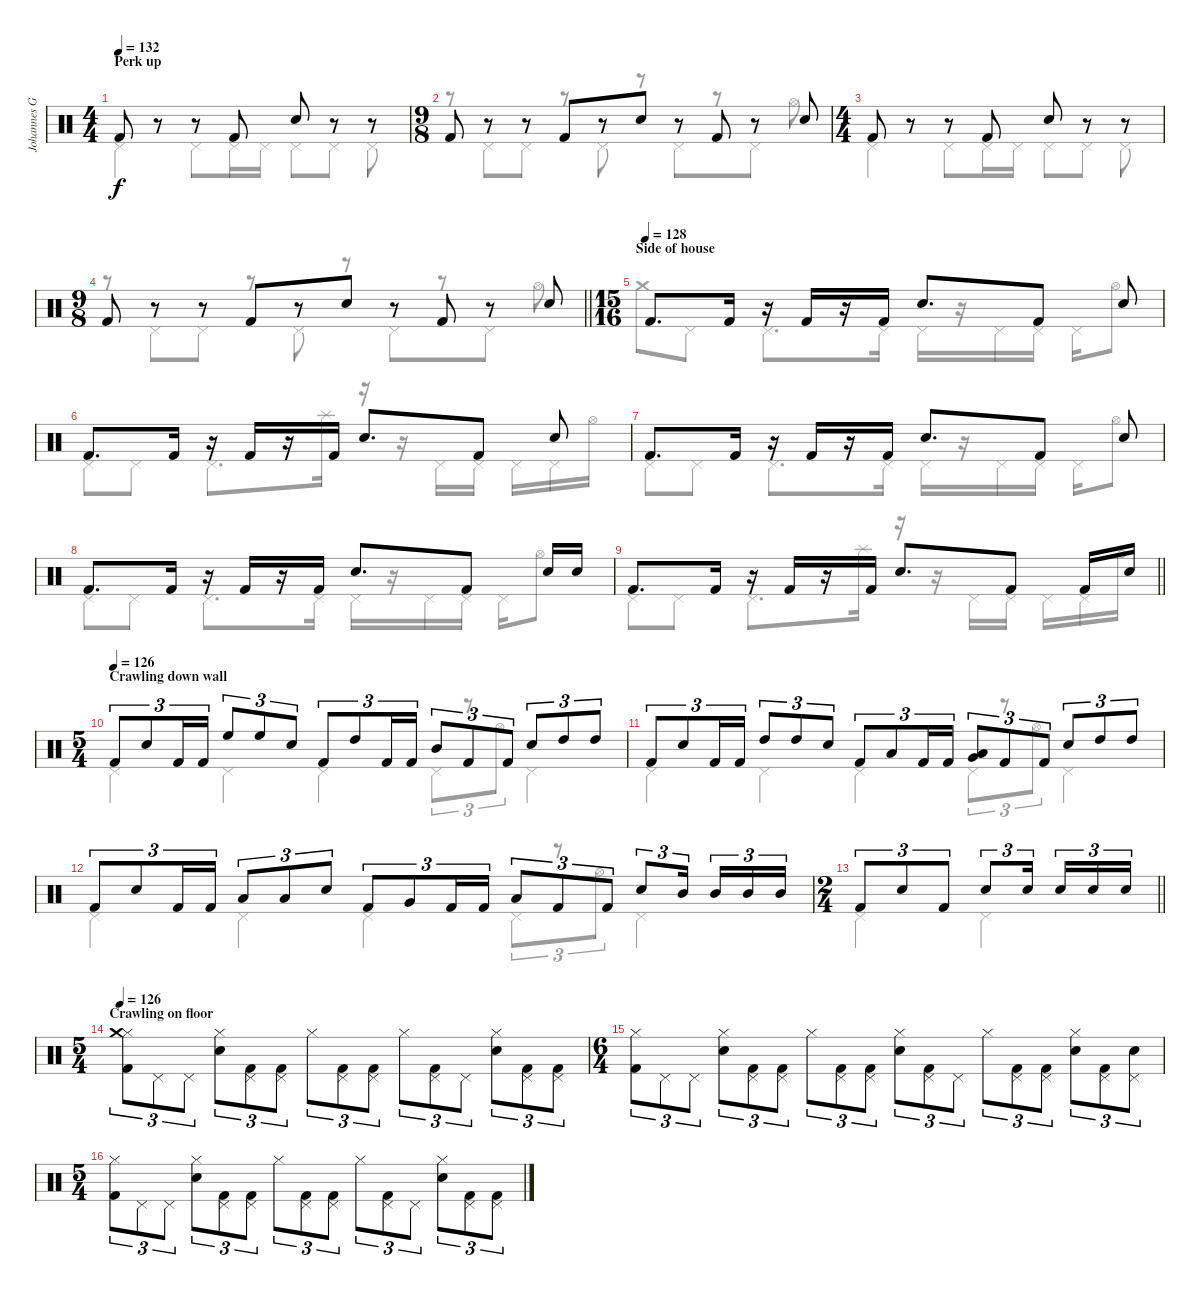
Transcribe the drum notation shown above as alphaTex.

\track ("Johannes Grossmann" "Johannes G") {instrument percussion}
\staff {score}
\articulation defaults
\voice
\ts (4 4)
\section ("" "Perk up")
\tempo 132
\clef neutral
\ks c "Kick (hit) 2".8{dy f}
r.8 r.8 "Kick (hit) 2".8 "Snare (hit) 2".8 r.8 r.8 |
\ts (9 8)
"Kick (hit) 2".8 r.8 r.8 "Kick (hit) 2".8 r.8 "Snare (hit) 2".8 r.8 "Kick (hit) 2".8 r.8 "Snare (hit) 2".8 |
\ts (4 4)
"Kick (hit) 2".8 r.8 r.8 "Kick (hit) 2".8 "Snare (hit) 2".8 r.8 r.8 |
\ts (9 8)
\barLineRight lightlight "Kick (hit) 2".8
r.8 r.8 "Kick (hit) 2".8 r.8 "Snare (hit) 2".8 r.8 "Kick (hit) 2".8 r.8 "Snare (hit) 2".8 |
\ts (15 16)
\section ("" "Side of house")
\tempo (128)
"Kick (hit) 2".8{d} "Kick (hit) 2".16 r.16 "Kick (hit) 2".16 r.16 "Kick (hit) 2".16 "Snare (hit) 2".8{d} "Kick (hit) 2".8 "Snare (hit) 2".8 |
"Kick (hit) 2".8{d} "Kick (hit) 2".16 r.16 "Kick (hit) 2".16 r.16 "Kick (hit) 2".16 "Snare (hit) 2".8{d} "Kick (hit) 2".8 "Snare (hit) 2".8 |
"Kick (hit) 2".8{d} "Kick (hit) 2".16 r.16 "Kick (hit) 2".16 r.16 "Kick (hit) 2".16 "Snare (hit) 2".8{d} "Kick (hit) 2".8 "Snare (hit) 2".8 |
"Kick (hit) 2".8{d} "Kick (hit) 2".16 r.16 "Kick (hit) 2".16 r.16 "Kick (hit) 2".16 "Snare (hit) 2".8{d} "Kick (hit) 2".8 "Snare (hit) 2".16 "Snare (hit) 2".16 |
\barLineRight lightlight "Kick (hit) 2".8{d} "Kick (hit) 2".16
r.16 "Kick (hit) 2".16 r.16 "Kick (hit) 2".16 "Snare (hit) 2".8{d} "Kick (hit) 2".8 "Kick (hit) 2".16 "Snare (hit) 2".16 |
\ts (5 4)
\section ("" "Crawling down wall")
\tempo (126)
"Kick (hit) 2".8{tu (3 2)} "Snare (hit) 2".8{tu (3 2)} "Kick (hit) 2".16{tu (3 2)} "Kick (hit) 2".16{tu (3 2)} "High Floor Tom (hit)".8{tu (3 2)} "High Floor Tom (hit)".8{tu (3 2)} "Snare (hit) 2".8{tu (3 2)} "Kick (hit) 2".8{tu (3 2)} "High Tom (hit)".8{tu (3 2)} "Kick (hit) 2".16{tu (3 2)} "Kick (hit) 2".16{tu (3 2)} "Mid Tom (hit)".8{tu (3 2)} "Kick (hit) 2".8{tu (3 2)} "Kick (hit) 2".8{tu (3 2)} "Snare (hit) 2".8{tu (3 2)} "High Tom (hit)".8{tu (3 2)} "High Tom (hit)".8{tu (3 2)} |
"Kick (hit) 2".8{tu (3 2)} "Snare (hit) 2".8{tu (3 2)} "Kick (hit) 2".16{tu (3 2)} "Kick (hit) 2".16{tu (3 2)} "High Tom (hit)".8{tu (3 2)} "High Tom (hit)".8{tu (3 2)} "Snare (hit) 2".8{tu (3 2)} "Kick (hit) 2".8{tu (3 2)} "Low Tom (hit)".8{tu (3 2)} "Kick (hit) 2".16{tu (3 2)} "Kick (hit) 2".16{tu (3 2)} ("Low Floor Tom (hit)" "Very Low Tom (hit)").8{tu (3 2)} "Kick (hit) 2".8{tu (3 2)} "Kick (hit) 2".8{tu (3 2)} "Snare (hit) 2".8{tu (3 2)} "High Tom (hit)".8{tu (3 2)} "High Tom (hit)".8{tu (3 2)} |
"Kick (hit) 2".8{tu (3 2)} "Snare (hit) 2".8{tu (3 2)} "Kick (hit) 2".16{tu (3 2)} "Kick (hit) 2".16{tu (3 2)} "Low Tom (hit)".8{tu (3 2)} "Low Tom (hit)".8{tu (3 2)} "Snare (hit) 2".8{tu (3 2)} "Kick (hit) 2".8{tu (3 2)} "Very Low Tom (hit)".8{tu (3 2)} "Kick (hit) 2".16{tu (3 2)} "Kick (hit) 2".16{tu (3 2)} "Low Floor Tom (hit)".8{tu (3 2)} "Kick (hit) 2".8{tu (3 2)} "Kick (hit) 2".8{tu (3 2)} "Snare (hit) 2".8{tu (3 2)} "Mid Tom (hit)".16{tu (3 2) beam splitsecondary} "Mid Tom (hit)".16{tu (3 2)} "Mid Tom (hit)".16{tu (3 2)} "Mid Tom (hit)".16{tu (3 2)} |
\ts (2 4)
\barLineRight lightlight "Kick (hit) 2".8{tu (3 2)} "Snare (hit) 2".8{tu (3 2)} "Kick (hit) 2".8{tu (3 2)} "Snare (hit) 2".8{tu (3 2)} "Snare (hit) 2".16{tu (3 2) beam splitsecondary} "Snare (hit) 2".16{tu (3 2)} "Snare (hit) 2".16{tu (3 2)} "Snare (hit) 2".16{tu (3 2)}
|
\ts (5 4)
\section ("" "Crawling on floor")
\tempo 126
("Hi-Hat (closed)" "Crash medium (hit)" "Kick (hit) 2").8{tu (3 2)} "Pedal Hi-Hat (hit)".8{tu (3 2)} "Pedal Hi-Hat (hit)".8{tu (3 2)} ("Hi-Hat (closed)" "Snare (hit) 2").8{tu (3 2)} ("Pedal Hi-Hat (hit)" "Kick (hit) 2").8{tu (3 2)} ("Pedal Hi-Hat (hit)" "Kick (hit) 2").8{tu (3 2)} "Hi-Hat (closed)".8{tu (3 2)} ("Pedal Hi-Hat (hit)" "Kick (hit) 2").8{tu (3 2)} ("Pedal Hi-Hat (hit)" "Kick (hit) 2").8{tu (3 2)} "Hi-Hat (closed)".8{tu (3 2)} ("Pedal Hi-Hat (hit)" "Kick (hit) 2").8{tu (3 2)} "Pedal Hi-Hat (hit)".8{tu (3 2)} ("Hi-Hat (closed)" "Snare (hit) 2").8{tu (3 2)} ("Pedal Hi-Hat (hit)" "Kick (hit) 2").8{tu (3 2)} ("Pedal Hi-Hat (hit)" "Kick (hit) 2").8{tu (3 2)} |
\ts (6 4)
("Hi-Hat (closed)" "Kick (hit) 2").8{tu (3 2)} "Pedal Hi-Hat (hit)".8{tu (3 2)} "Pedal Hi-Hat (hit)".8{tu (3 2)} ("Hi-Hat (closed)" "Snare (hit) 2").8{tu (3 2)} ("Pedal Hi-Hat (hit)" "Kick (hit) 2").8{tu (3 2)} ("Pedal Hi-Hat (hit)" "Kick (hit) 2").8{tu (3 2)} "Hi-Hat (closed)".8{tu (3 2)} ("Pedal Hi-Hat (hit)" "Kick (hit) 2").8{tu (3 2)} ("Pedal Hi-Hat (hit)" "Kick (hit) 2").8{tu (3 2)} ("Hi-Hat (closed)" "Snare (hit) 2").8{tu (3 2)} ("Pedal Hi-Hat (hit)" "Kick (hit) 2").8{tu (3 2)} "Pedal Hi-Hat (hit)".8{tu (3 2)} "Hi-Hat (closed)".8{tu (3 2)} ("Pedal Hi-Hat (hit)" "Kick (hit) 2").8{tu (3 2)} ("Pedal Hi-Hat (hit)" "Kick (hit) 2").8{tu (3 2)} ("Hi-Hat (closed)" "Snare (hit) 2").8{tu (3 2)} ("Pedal Hi-Hat (hit)" "Kick (hit) 2").8{tu (3 2)} ("Pedal Hi-Hat (hit)" "Snare (hit) 2").8{tu (3 2)} |
\ts (5 4)
("Hi-Hat (closed)" "Kick (hit) 2").8{tu (3 2)} "Pedal Hi-Hat (hit)".8{tu (3 2)} "Pedal Hi-Hat (hit)".8{tu (3 2)} ("Hi-Hat (closed)" "Snare (hit) 2").8{tu (3 2)} ("Pedal Hi-Hat (hit)" "Kick (hit) 2").8{tu (3 2)} ("Pedal Hi-Hat (hit)" "Kick (hit) 2").8{tu (3 2)} "Hi-Hat (closed)".8{tu (3 2)} ("Pedal Hi-Hat (hit)" "Kick (hit) 2").8{tu (3 2)} ("Pedal Hi-Hat (hit)" "Kick (hit) 2").8{tu (3 2)} "Hi-Hat (closed)".8{tu (3 2)} ("Pedal Hi-Hat (hit)" "Kick (hit) 2").8{tu (3 2)} "Pedal Hi-Hat (hit)".8{tu (3 2)} ("Hi-Hat (closed)" "Snare (hit) 2").8{tu (3 2)} ("Pedal Hi-Hat (hit)" "Kick (hit) 2").8{tu (3 2)} ("Pedal Hi-Hat (hit)" "Kick (hit) 2").8{tu (3 2)}
\voice
\clef neutral
\ottava regular
\simile none
\ks c "Pedal Hi-Hat (hit)".4{dy f} "Pedal Hi-Hat (hit)".8 "Pedal Hi-Hat (hit)".16 "Pedal Hi-Hat (hit)".16 "Pedal Hi-Hat (hit)".8 "Pedal Hi-Hat (hit)".8 "Pedal Hi-Hat (hit)".8
|
r.8 "Pedal Hi-Hat (hit)".8 "Pedal Hi-Hat (hit)".8 r.8 "Pedal Hi-Hat (hit)".8 r.8 "Pedal Hi-Hat (hit)".8 r.8 "Pedal Hi-Hat (hit)".8 "Hi-Hat (open)".8 |
"Pedal Hi-Hat (hit)".4 "Pedal Hi-Hat (hit)".8 "Pedal Hi-Hat (hit)".16 "Pedal Hi-Hat (hit)".16 "Pedal Hi-Hat (hit)".8 "Pedal Hi-Hat (hit)".8 "Pedal Hi-Hat (hit)".8 |
\barLineRight lightlight
r.8 "Pedal Hi-Hat (hit)".8 "Pedal Hi-Hat (hit)".8 r.8 "Pedal Hi-Hat (hit)".8 r.8 "Pedal Hi-Hat (hit)".8 r.8 "Pedal Hi-Hat (hit)".8 "Hi-Hat (open)".8 |
"Crash medium (hit)".8 "Pedal Hi-Hat (hit)".8 "Pedal Hi-Hat (hit)".8{d} "Pedal Hi-Hat (hit)".16 "Pedal Hi-Hat (hit)".16 r.16 "Pedal Hi-Hat (hit)".16 "Pedal Hi-Hat (hit)".16 "Pedal Hi-Hat (hit)".16 "Hi-Hat (open)".8 |
"Pedal Hi-Hat (hit)".8 "Pedal Hi-Hat (hit)".8 "Pedal Hi-Hat (hit)".8{d} "Splash (hit)".16 r.16 r.16 "Pedal Hi-Hat (hit)".16 "Pedal Hi-Hat (hit)".16 "Pedal Hi-Hat (hit)".16 "Pedal Hi-Hat (hit)".16 "Hi-Hat (open)".16 |
"Pedal Hi-Hat (hit)".8 "Pedal Hi-Hat (hit)".8 "Pedal Hi-Hat (hit)".8{d} "Pedal Hi-Hat (hit)".16 "Pedal Hi-Hat (hit)".16 r.16 "Pedal Hi-Hat (hit)".16 "Pedal Hi-Hat (hit)".16 "Pedal Hi-Hat (hit)".16 "Hi-Hat (open)".8 |
"Pedal Hi-Hat (hit)".8 "Pedal Hi-Hat (hit)".8 "Pedal Hi-Hat (hit)".8{d} "Pedal Hi-Hat (hit)".16 "Pedal Hi-Hat (hit)".16 r.16 "Pedal Hi-Hat (hit)".16 "Pedal Hi-Hat (hit)".16 "Pedal Hi-Hat (hit)".16 "Hi-Hat (open)".8 |
\barLineRight lightlight "Pedal Hi-Hat (hit)".8 "Pedal Hi-Hat (hit)".8 "Pedal Hi-Hat (hit)".8{d} "Splash (hit)".16
r.16 r.16 "Pedal Hi-Hat (hit)".16 "Pedal Hi-Hat (hit)".16 "Pedal Hi-Hat (hit)".16 "Pedal Hi-Hat (hit)".16 "Hi-Hat (open)".16 |
"Pedal Hi-Hat (hit)".4 "Pedal Hi-Hat (hit)".4 "Pedal Hi-Hat (hit)".4 "Pedal Hi-Hat (hit)".8{tu (3 2)} r.8{tu (3 2)} "Hi-Hat (open)".8{tu (3 2)} "Pedal Hi-Hat (hit)".4 |
"Pedal Hi-Hat (hit)".4 "Pedal Hi-Hat (hit)".4 "Pedal Hi-Hat (hit)".4 "Pedal Hi-Hat (hit)".8{tu (3 2)} r.8{tu (3 2)} "Hi-Hat (open)".8{tu (3 2)} "Pedal Hi-Hat (hit)".4 |
"Pedal Hi-Hat (hit)".4 "Pedal Hi-Hat (hit)".4 "Pedal Hi-Hat (hit)".4 "Pedal Hi-Hat (hit)".8{tu (3 2)} r.8{tu (3 2)} "Hi-Hat (open)".8{tu (3 2)} "Pedal Hi-Hat (hit)".4 |
\barLineRight lightlight "Pedal Hi-Hat (hit)".4 "Pedal Hi-Hat (hit)".4
|
|
|
